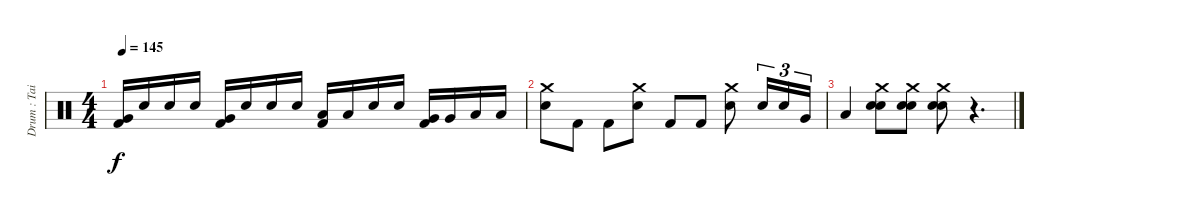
\track ("Drum : Tainaka Ritsu" "Drum : Tai") {instrument percussion}
\staff {score}
\articulation defaults
\ts (4 4)
\tempo 145
\clef neutral
\ks c
("Very Low Tom (hit)" "Kick (hit) 2").16{dy f} "Electric Snare (hit)".16 "Electric Snare (hit)".16 "Electric Snare (hit)".16 ("Very Low Tom (hit)" "Kick (hit) 2").16 "Electric Snare (hit)".16 "Electric Snare (hit)".16 "Electric Snare (hit)".16 ("Low Tom (hit)" "Kick (hit) 2").16 "Low Tom (hit)".16 "Electric Snare (hit)".16 "Electric Snare (hit)".16 ("Very Low Tom (hit)" "Kick (hit) 2").16 "Very Low Tom (hit)".16 "Low Floor Tom (hit)".16 "Low Floor Tom (hit)".16 |
("Crash medium (hit)" "Electric Snare (hit)").8 "Kick (hit) 2".8 "Kick (hit) 2".8 ("Crash medium (hit)" "Electric Snare (hit)").8 "Kick (hit) 2".8 "Kick (hit) 2".8 ("Crash medium (hit)" "Electric Snare (hit)").8 "Electric Snare (hit)".16{tu (3 2)} "Electric Snare (hit)".16{tu (3 2)} "Very Low Tom (hit)".16{tu (3 2)} |
"Low Floor Tom (hit)".4 ("Crash medium (hit)" "Electric Snare (hit)" "Electric Snare (hit)").8 ("Crash medium (hit)" "Electric Snare (hit)" "Electric Snare (hit)").8 ("Crash medium (hit)" "Electric Snare (hit)" "Electric Snare (hit)").8 r.4{d}
